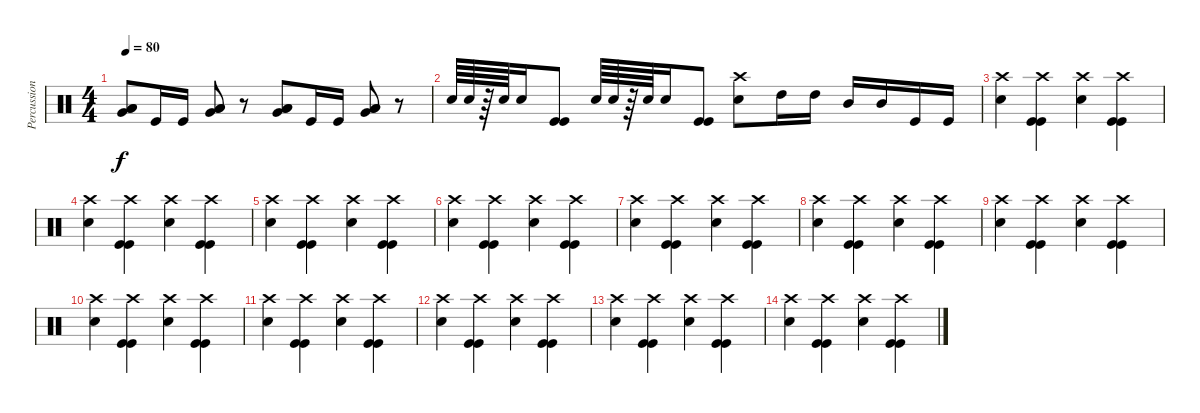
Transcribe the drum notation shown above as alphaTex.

\track ("Percussion" "Percussion") {instrument percussion}
\staff {score}
\articulation defaults
\ts (4 4)
\tempo 80
\clef neutral
\ks c
("Low Floor Tom (hit)" "Very Low Tom (hit)" "Low Floor Tom (hit)").8{bd 60 dy f} "Kick (hit)".16 "Kick (hit)".16 ("Low Floor Tom (hit)" "Very Low Tom (hit)" "Low Floor Tom (hit)").8{bd 60} r.8 ("Low Floor Tom (hit)" "Very Low Tom (hit)" "Low Floor Tom (hit)").8{bd 60} "Kick (hit)".16 "Kick (hit)".16 ("Low Floor Tom (hit)" "Very Low Tom (hit)" "Low Floor Tom (hit)").8{bd 60} r.8 |
"Snare (hit) 2".64 "Snare (hit) 2".64 r.64 "Snare (hit) 2".64 "Snare (hit) 2".16 ("Kick (hit)" "Kick (hit)").8 "Snare (hit) 2".64 "Snare (hit) 2".64 r.64 "Snare (hit) 2".64 "Snare (hit) 2".16 ("Kick (hit)" "Kick (hit)").8 ("Crash high (hit)" "Snare (hit) 2").8 "High Tom (hit)".16 "High Tom (hit)".16 "Mid Tom (hit)".16 "Mid Tom (hit)".16 "Kick (hit)".16 "Kick (hit)".16 |
("Crash high (hit)" "Snare (hit) 2").4 ("Crash high (hit)" "Kick (hit)" "Kick (hit)").4 ("Crash high (hit)" "Snare (hit) 2").4 ("Crash high (hit)" "Kick (hit)" "Kick (hit)").4 |
("Crash high (hit)" "Snare (hit) 2").4 ("Crash high (hit)" "Kick (hit)" "Kick (hit)").4 ("Crash high (hit)" "Snare (hit) 2").4 ("Crash high (hit)" "Kick (hit)" "Kick (hit)").4 |
("Crash high (hit)" "Snare (hit) 2").4 ("Crash high (hit)" "Kick (hit)" "Kick (hit)").4 ("Crash high (hit)" "Snare (hit) 2").4 ("Crash high (hit)" "Kick (hit)" "Kick (hit)").4 |
("Crash high (hit)" "Snare (hit) 2").4 ("Crash high (hit)" "Kick (hit)" "Kick (hit)").4 ("Crash high (hit)" "Snare (hit) 2").4 ("Crash high (hit)" "Kick (hit)" "Kick (hit)").4 |
("Crash high (hit)" "Snare (hit) 2").4 ("Crash high (hit)" "Kick (hit)" "Kick (hit)").4 ("Crash high (hit)" "Snare (hit) 2").4 ("Crash high (hit)" "Kick (hit)" "Kick (hit)").4 |
("Crash high (hit)" "Snare (hit) 2").4 ("Crash high (hit)" "Kick (hit)" "Kick (hit)").4 ("Crash high (hit)" "Snare (hit) 2").4 ("Crash high (hit)" "Kick (hit)" "Kick (hit)").4 |
("Crash high (hit)" "Snare (hit) 2").4 ("Crash high (hit)" "Kick (hit)" "Kick (hit)").4 ("Crash high (hit)" "Snare (hit) 2").4 ("Crash high (hit)" "Kick (hit)" "Kick (hit)").4 |
("Crash high (hit)" "Snare (hit) 2").4 ("Crash high (hit)" "Kick (hit)" "Kick (hit)").4 ("Crash high (hit)" "Snare (hit) 2").4 ("Crash high (hit)" "Kick (hit)" "Kick (hit)").4 |
("Crash high (hit)" "Snare (hit) 2").4 ("Crash high (hit)" "Kick (hit)" "Kick (hit)").4 ("Crash high (hit)" "Snare (hit) 2").4 ("Crash high (hit)" "Kick (hit)" "Kick (hit)").4 |
("Crash high (hit)" "Snare (hit) 2").4 ("Crash high (hit)" "Kick (hit)" "Kick (hit)").4 ("Crash high (hit)" "Snare (hit) 2").4 ("Crash high (hit)" "Kick (hit)" "Kick (hit)").4 |
("Crash high (hit)" "Snare (hit) 2").4 ("Crash high (hit)" "Kick (hit)" "Kick (hit)").4 ("Crash high (hit)" "Snare (hit) 2").4 ("Crash high (hit)" "Kick (hit)" "Kick (hit)").4 |
("Crash high (hit)" "Snare (hit) 2").4 ("Crash high (hit)" "Kick (hit)" "Kick (hit)").4 ("Crash high (hit)" "Snare (hit) 2").4 ("Crash high (hit)" "Kick (hit)" "Kick (hit)").4
